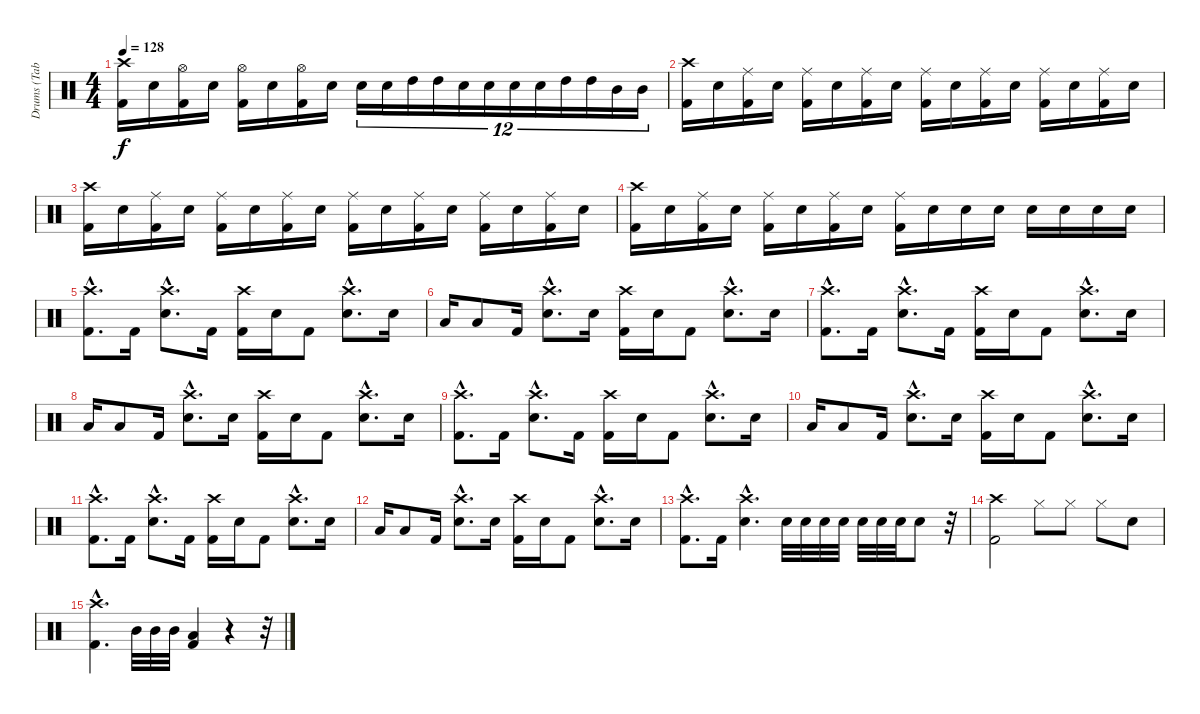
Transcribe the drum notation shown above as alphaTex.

\track ("Drums (Tabbed by: Leonardo_codev)" "Drums (Tab") {instrument percussion}
\staff {score}
\articulation defaults
\ts (4 4)
\tempo 128
\clef neutral
\ks c
("Crash high (hit)" "Kick (hit) 2").16{dy f} "Electric Snare (hit)".16 ("Hi-Hat (open)" "Kick (hit) 2").16 "Electric Snare (hit)".16 ("Hi-Hat (open)" "Kick (hit) 2").16 "Electric Snare (hit)".16 ("Hi-Hat (open)" "Kick (hit) 2").16 "Electric Snare (hit)".16 "Electric Snare (hit)".16{tu (12 8)} "Electric Snare (hit)".16{tu (12 8)} "High Tom (hit)".16{tu (12 8)} "High Tom (hit)".16{tu (12 8)} "Electric Snare (hit)".16{tu (12 8)} "Electric Snare (hit)".16{tu (12 8)} "Electric Snare (hit)".16{tu (12 8)} "Electric Snare (hit)".16{tu (12 8)} "High Tom (hit)".16{tu (12 8)} "High Tom (hit)".16{tu (12 8)} "Mid Tom (hit)".16{tu (12 8)} "Mid Tom (hit)".16{tu (12 8)} |
("Crash high (hit)" "Kick (hit) 2").16 "Electric Snare (hit)".16 ("Ride (middle)" "Kick (hit) 2").16 "Electric Snare (hit)".16 ("Ride (middle)" "Kick (hit) 2").16 "Electric Snare (hit)".16 ("Ride (middle)" "Kick (hit) 2").16 "Electric Snare (hit)".16 ("Ride (middle)" "Kick (hit) 2").16 "Electric Snare (hit)".16 ("Ride (middle)" "Kick (hit) 2").16 "Electric Snare (hit)".16 ("Ride (middle)" "Kick (hit) 2").16 "Electric Snare (hit)".16 ("Ride (middle)" "Kick (hit) 2").16 "Electric Snare (hit)".16 |
("Crash high (hit)" "Kick (hit) 2").16 "Electric Snare (hit)".16 ("Ride (middle)" "Kick (hit) 2").16 "Electric Snare (hit)".16 ("Ride (middle)" "Kick (hit) 2").16 "Electric Snare (hit)".16 ("Ride (middle)" "Kick (hit) 2").16 "Electric Snare (hit)".16 ("Ride (middle)" "Kick (hit) 2").16 "Electric Snare (hit)".16 ("Ride (middle)" "Kick (hit) 2").16 "Electric Snare (hit)".16 ("Ride (middle)" "Kick (hit) 2").16 "Electric Snare (hit)".16 ("Ride (middle)" "Kick (hit) 2").16 "Electric Snare (hit)".16 |
("Crash high (hit)" "Kick (hit) 2").16 "Electric Snare (hit)".16 ("Ride (middle)" "Kick (hit) 2").16 "Electric Snare (hit)".16 ("Ride (middle)" "Kick (hit) 2").16 "Electric Snare (hit)".16 ("Ride (middle)" "Kick (hit) 2").16 "Electric Snare (hit)".16 ("Ride (middle)" "Kick (hit) 2").16 "Electric Snare (hit)".16 "Electric Snare (hit)".16 "Electric Snare (hit)".16 "Electric Snare (hit)".16 "Electric Snare (hit)".16 "Electric Snare (hit)".16 "Electric Snare (hit)".16 |
("Crash high (hit)"{hac} "Kick (hit) 2"{hac}).8{d} "Kick (hit) 2".16 ("Crash high (hit)"{hac} "Electric Snare (hit)"{hac}).8{d} "Kick (hit) 2".16 ("Crash high (hit)" "Kick (hit) 2").16 "Electric Snare (hit)".16 "Kick (hit) 2".8 ("Crash high (hit)"{hac} "Electric Snare (hit)"{hac}).8{d} "Electric Snare (hit)".16 |
"Low Tom (hit)".16 "Low Tom (hit)".8 "Kick (hit) 2".16 ("Crash high (hit)"{hac} "Electric Snare (hit)"{hac}).8{d} "Electric Snare (hit)".16 ("Crash high (hit)" "Kick (hit) 2").16 "Electric Snare (hit)".16 "Kick (hit) 2".8 ("Crash high (hit)"{hac} "Electric Snare (hit)"{hac}).8{d} "Electric Snare (hit)".16 |
("Crash high (hit)"{hac} "Kick (hit) 2"{hac}).8{d} "Kick (hit) 2".16 ("Crash high (hit)"{hac} "Electric Snare (hit)"{hac}).8{d} "Kick (hit) 2".16 ("Crash high (hit)" "Kick (hit) 2").16 "Electric Snare (hit)".16 "Kick (hit) 2".8 ("Crash high (hit)"{hac} "Electric Snare (hit)"{hac}).8{d} "Electric Snare (hit)".16 |
"Low Tom (hit)".16 "Low Tom (hit)".8 "Kick (hit) 2".16 ("Crash high (hit)"{hac} "Electric Snare (hit)"{hac}).8{d} "Electric Snare (hit)".16 ("Crash high (hit)" "Kick (hit) 2").16 "Electric Snare (hit)".16 "Kick (hit) 2".8 ("Crash high (hit)"{hac} "Electric Snare (hit)"{hac}).8{d} "Electric Snare (hit)".16 |
("Crash high (hit)"{hac} "Kick (hit) 2"{hac}).8{d} "Kick (hit) 2".16 ("Crash high (hit)"{hac} "Electric Snare (hit)"{hac}).8{d} "Kick (hit) 2".16 ("Crash high (hit)" "Kick (hit) 2").16 "Electric Snare (hit)".16 "Kick (hit) 2".8 ("Crash high (hit)"{hac} "Electric Snare (hit)"{hac}).8{d} "Electric Snare (hit)".16 |
"Low Tom (hit)".16 "Low Tom (hit)".8 "Kick (hit) 2".16 ("Crash high (hit)"{hac} "Electric Snare (hit)"{hac}).8{d} "Electric Snare (hit)".16 ("Crash high (hit)" "Kick (hit) 2").16 "Electric Snare (hit)".16 "Kick (hit) 2".8 ("Crash high (hit)"{hac} "Electric Snare (hit)"{hac}).8{d} "Electric Snare (hit)".16 |
("Crash high (hit)"{hac} "Kick (hit) 2"{hac}).8{d} "Kick (hit) 2".16 ("Crash high (hit)"{hac} "Electric Snare (hit)"{hac}).8{d} "Kick (hit) 2".16 ("Crash high (hit)" "Kick (hit) 2").16 "Electric Snare (hit)".16 "Kick (hit) 2".8 ("Crash high (hit)"{hac} "Electric Snare (hit)"{hac}).8{d} "Electric Snare (hit)".16 |
"Low Tom (hit)".16 "Low Tom (hit)".8 "Kick (hit) 2".16 ("Crash high (hit)"{hac} "Electric Snare (hit)"{hac}).8{d} "Electric Snare (hit)".16 ("Crash high (hit)" "Kick (hit) 2").16 "Electric Snare (hit)".16 "Kick (hit) 2".8 ("Crash high (hit)"{hac} "Electric Snare (hit)"{hac}).8{d} "Electric Snare (hit)".16 |
("Crash high (hit)"{hac} "Kick (hit) 2"{hac}).8{d} "Kick (hit) 2".16 ("Crash high (hit)"{hac} "Electric Snare (hit)"{hac}).4{d} "Electric Snare (hit)".32 "Electric Snare (hit)".32 "Electric Snare (hit)".32 "Electric Snare (hit)".32 "Electric Snare (hit)".32 "Electric Snare (hit)".32 "Electric Snare (hit)".32 "Electric Snare (hit)".8 r.32 |
("Crash high (hit)" "Kick (hit) 2").2 "Hi-Hat (closed)".8 "Hi-Hat (closed)".8 "Hi-Hat (closed)".8 "Electric Snare (hit)".8 |
("Crash high (hit)"{hac} "Kick (hit) 2"{hac}).4{d} "Mid Tom (hit)".32 "Mid Tom (hit)".32 "Mid Tom (hit)".32 ("Low Tom (hit)" "Kick (hit) 2").4 r.4 r.32
